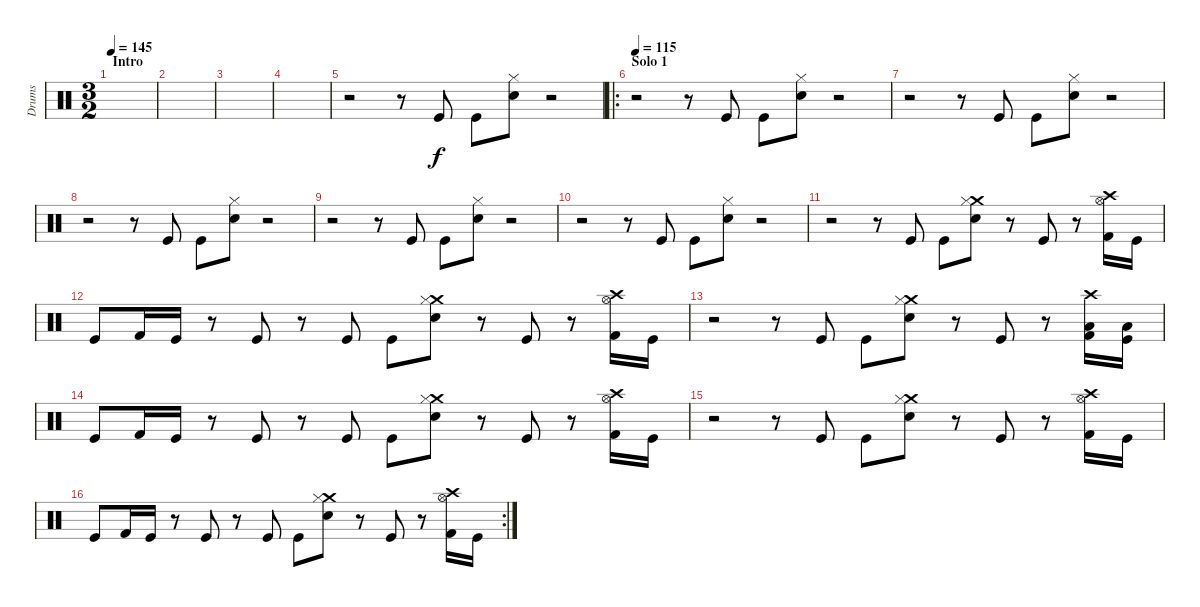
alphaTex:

\track ("Drums" "Drums") {instrument percussion}
\staff {score}
\articulation defaults
\ts (3 2)
\section ("" "Intro")
\tempo 145
\tempo 115
\tempo 145
\clef neutral
\ks c
|
|
|
|
r.2 r.8 "Kick (hit)".8 "Kick (hit)".8 ("Hi-Hat (closed)" "Snare (hit) 2").8 r.2 |
\ro
\section ("" "Solo 1")
\tempo 115
r.2 r.8 "Kick (hit)".8 "Kick (hit)".8 ("Hi-Hat (closed)" "Snare (hit) 2").8 r.2 |
r.2 r.8 "Kick (hit)".8 "Kick (hit)".8 ("Hi-Hat (closed)" "Snare (hit) 2").8 r.2 |
r.2 r.8 "Kick (hit)".8 "Kick (hit)".8 ("Hi-Hat (closed)" "Snare (hit) 2").8 r.2 |
r.2 r.8 "Kick (hit)".8 "Kick (hit)".8 ("Hi-Hat (closed)" "Snare (hit) 2").8 r.2 |
r.2 r.8 "Kick (hit)".8 "Kick (hit)".8 ("Hi-Hat (closed)" "Snare (hit) 2").8 r.2 |
r.2 r.8 "Kick (hit)".8 "Kick (hit)".8 ("Crash medium (hit)" "Hi-Hat (closed)" "Snare (hit) 2").8 r.8 "Kick (hit)".8 r.8 ("Crash high (hit)" "Hi-Hat (open)" "Kick (hit) 2").16 "Kick (hit)".16 |
"Kick (hit)".8 "Kick (hit) 2".16 "Kick (hit)".16 r.8 "Kick (hit)".8 r.8 "Kick (hit)".8 "Kick (hit)".8 ("Crash medium (hit)" "Hi-Hat (closed)" "Snare (hit) 2").8 r.8 "Kick (hit)".8 r.8 ("Crash high (hit)" "Hi-Hat (open)" "Kick (hit) 2").16 "Kick (hit)".16 |
r.2 r.8 "Kick (hit)".8 "Kick (hit)".8 ("Crash medium (hit)" "Hi-Hat (closed)" "Snare (hit) 2").8 r.8 "Kick (hit)".8 r.8 ("Crash high (hit)" "Low Tom (hit)" "Kick (hit) 2").16 ("Low Tom (hit)" "Kick (hit)").16 |
"Kick (hit)".8 "Kick (hit) 2".16 "Kick (hit)".16 r.8 "Kick (hit)".8 r.8 "Kick (hit)".8 "Kick (hit)".8 ("Crash medium (hit)" "Hi-Hat (closed)" "Snare (hit) 2").8 r.8 "Kick (hit)".8 r.8 ("Crash high (hit)" "Hi-Hat (open)" "Kick (hit) 2").16 "Kick (hit)".16 |
r.2 r.8 "Kick (hit)".8 "Kick (hit)".8 ("Crash medium (hit)" "Hi-Hat (closed)" "Snare (hit) 2").8 r.8 "Kick (hit)".8 r.8 ("Crash high (hit)" "Hi-Hat (open)" "Kick (hit) 2").16 "Kick (hit)".16 |
\rc 2 "Kick (hit)".8 "Kick (hit) 2".16 "Kick (hit)".16
r.8 "Kick (hit)".8 r.8 "Kick (hit)".8 "Kick (hit)".8 ("Crash medium (hit)" "Hi-Hat (closed)" "Snare (hit) 2").8 r.8 "Kick (hit)".8 r.8 ("Crash high (hit)" "Hi-Hat (open)" "Kick (hit) 2").16 "Kick (hit)".16
